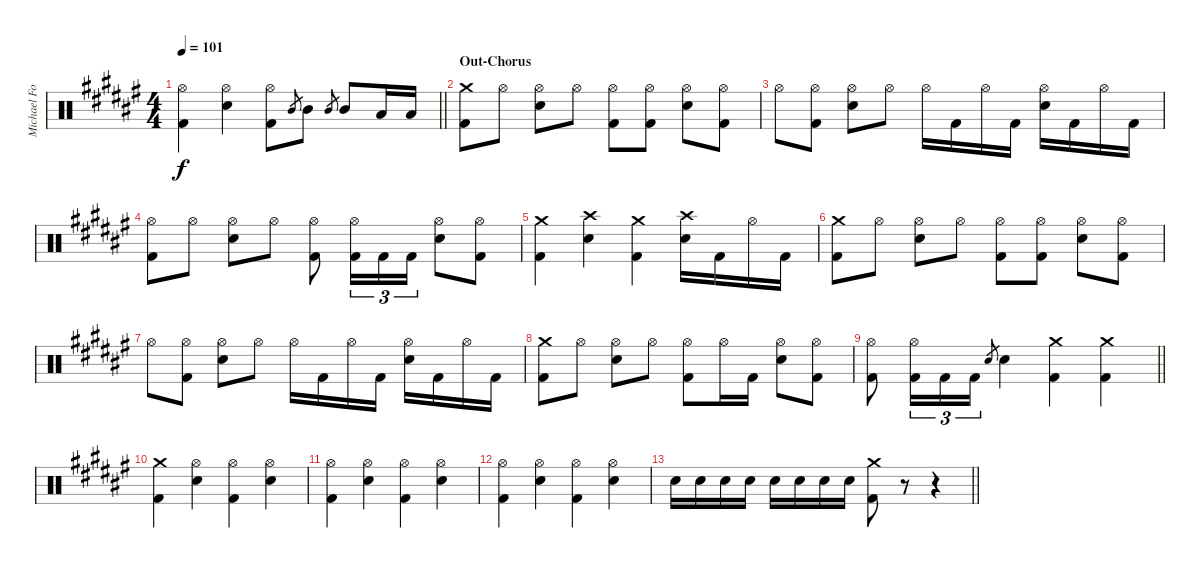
\track ("Michael Foster" "Michael Fo") {instrument percussion}
\staff {score}
\articulation defaults
\ts (4 4)
\tempo 101
\clef neutral
\barLineRight lightlight
\ks f#
("Hi-Hat (open)" "Kick (hit) 2").4{dy f} ("Hi-Hat (open)" "Snare (hit) 2").4 ("Hi-Hat (open)" "Kick (hit) 2").8 "Mid Tom (hit)".8{gr} "Mid Tom (hit)".8 "Mid Tom (hit)".8{gr} "Mid Tom (hit)".8 "Low Tom (hit)".16 "Low Tom (hit)".16 |
\section ("" "Out-Chorus")
("Crash medium (hit)" "Kick (hit) 2").8 "Hi-Hat (open)".8 ("Hi-Hat (open)" "Snare (hit) 2").8 "Hi-Hat (open)".8 ("Hi-Hat (open)" "Kick (hit) 2").8 ("Hi-Hat (open)" "Kick (hit) 2").8 ("Hi-Hat (open)" "Snare (hit) 2").8 ("Hi-Hat (open)" "Kick (hit) 2").8 |
"Hi-Hat (open)".8 ("Hi-Hat (open)" "Kick (hit) 2").8 ("Hi-Hat (open)" "Snare (hit) 2").8 "Hi-Hat (open)".8 "Hi-Hat (open)".16 "Kick (hit) 2".16 "Hi-Hat (open)".16 "Kick (hit) 2".16 ("Hi-Hat (open)" "Snare (hit) 2").16 "Kick (hit) 2".16 "Hi-Hat (open)".16 "Kick (hit) 2".16 |
("Hi-Hat (open)" "Kick (hit) 2").8 "Hi-Hat (open)".8 ("Hi-Hat (open)" "Snare (hit) 2").8 "Hi-Hat (open)".8 ("Hi-Hat (open)" "Kick (hit) 2").8 ("Hi-Hat (open)" "Kick (hit) 2").16{tu (3 2)} "Kick (hit) 2".16{tu (3 2)} "Kick (hit) 2".16{tu (3 2)} ("Hi-Hat (open)" "Snare (hit) 2").8 ("Hi-Hat (open)" "Kick (hit) 2").8 |
("Crash medium (hit)" "Kick (hit) 2").4 ("Crash high (hit)" "Snare (hit) 2").4 ("Crash medium (hit)" "Kick (hit) 2").4 ("Crash high (hit)" "Snare (hit) 2").16 "Kick (hit) 2".16 "Hi-Hat (open)".16 "Kick (hit) 2".16 |
("Crash medium (hit)" "Kick (hit) 2").8 "Hi-Hat (open)".8 ("Hi-Hat (open)" "Snare (hit) 2").8 "Hi-Hat (open)".8 ("Hi-Hat (open)" "Kick (hit) 2").8 ("Hi-Hat (open)" "Kick (hit) 2").8 ("Hi-Hat (open)" "Snare (hit) 2").8 ("Hi-Hat (open)" "Kick (hit) 2").8 |
"Hi-Hat (open)".8 ("Hi-Hat (open)" "Kick (hit) 2").8 ("Hi-Hat (open)" "Snare (hit) 2").8 "Hi-Hat (open)".8 "Hi-Hat (open)".16 "Kick (hit) 2".16 "Hi-Hat (open)".16 "Kick (hit) 2".16 ("Hi-Hat (open)" "Snare (hit) 2").16 "Kick (hit) 2".16 "Hi-Hat (open)".16 "Kick (hit) 2".16 |
("Crash medium (hit)" "Kick (hit) 2").8 "Hi-Hat (open)".8 ("Hi-Hat (open)" "Snare (hit) 2").8 "Hi-Hat (open)".8 ("Hi-Hat (open)" "Kick (hit) 2").8 "Hi-Hat (open)".16 "Kick (hit) 2".16 ("Hi-Hat (open)" "Snare (hit) 2").8 ("Hi-Hat (open)" "Kick (hit) 2").8 |
\barLineRight lightlight
("Hi-Hat (open)" "Kick (hit) 2").8 ("Hi-Hat (open)" "Kick (hit) 2").16{tu (3 2)} "Kick (hit) 2".16{tu (3 2)} "Kick (hit) 2".16{tu (3 2)} "Snare (hit) 2".8{gr} "Snare (hit) 2".4 ("Crash medium (hit)" "Kick (hit) 2").4 ("Crash medium (hit)" "Kick (hit) 2").4 |
("Crash medium (hit)" "Kick (hit) 2").4 ("Hi-Hat (open)" "Snare (hit) 2").4 ("Hi-Hat (open)" "Kick (hit) 2").4 ("Hi-Hat (open)" "Snare (hit) 2").4 |
("Hi-Hat (open)" "Kick (hit) 2").4 ("Hi-Hat (open)" "Snare (hit) 2").4 ("Hi-Hat (open)" "Kick (hit) 2").4 ("Hi-Hat (open)" "Snare (hit) 2").4 |
("Hi-Hat (open)" "Kick (hit) 2").4 ("Hi-Hat (open)" "Snare (hit) 2").4 ("Hi-Hat (open)" "Kick (hit) 2").4 ("Hi-Hat (open)" "Snare (hit) 2").4 |
\barLineRight lightlight "Snare (hit) 2".16 "Snare (hit) 2".16 "Snare (hit) 2".16 "Snare (hit) 2".16 "Snare (hit) 2".16 "Snare (hit) 2".16 "Snare (hit) 2".16 "Snare (hit) 2".16
("Crash medium (hit)" "Kick (hit) 2").8 r.8 r.4
